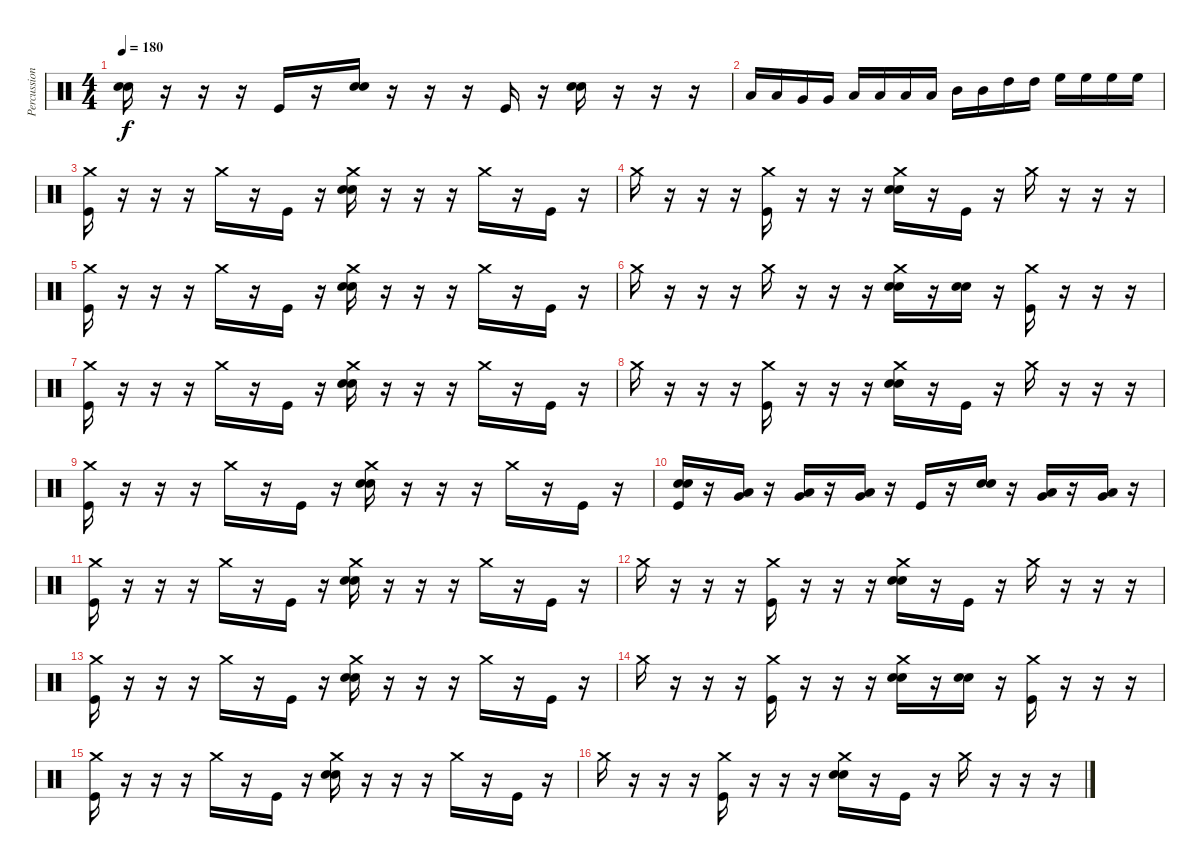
\track ("Percussion" "Percussion") {instrument percussion}
\staff {score}
\articulation defaults
\ts (4 4)
\tempo 180
\clef neutral
\ks c
("Snare (hit) 2" "Electric Snare (hit)").16{dy f} r.16 r.16 r.16 "Kick (hit)".16 r.16 ("Snare (hit) 2" "Electric Snare (hit)").16 r.16 r.16 r.16 "Kick (hit)".16 r.16 ("Snare (hit) 2" "Electric Snare (hit)").16 r.16 r.16 r.16 |
"Low Floor Tom (hit)".16 "Low Floor Tom (hit)".16 "Very Low Tom (hit)".16 "Very Low Tom (hit)".16 "Low Tom (hit)".16 "Low Tom (hit)".16 "Low Tom (hit)".16 "Low Tom (hit)".16 "Mid Tom (hit)".16 "Mid Tom (hit)".16 "High Tom (hit)".16 "High Tom (hit)".16 "High Floor Tom (hit)".16 "High Floor Tom (hit)".16 "High Floor Tom (hit)".16 "High Floor Tom (hit)".16 |
("Crash medium (hit)" "Kick (hit)").16 r.16 r.16 r.16 "Crash medium (hit)".16 r.16 "Kick (hit)".16 r.16 ("Crash medium (hit)" "Snare (hit) 2" "Electric Snare (hit)").16 r.16 r.16 r.16 "Crash medium (hit)".16 r.16 "Kick (hit)".16 r.16 |
"Crash medium (hit)".16 r.16 r.16 r.16 ("Crash medium (hit)" "Kick (hit)").16 r.16 r.16 r.16 ("Crash medium (hit)" "Snare (hit) 2" "Electric Snare (hit)").16 r.16 "Kick (hit)".16 r.16 "Crash medium (hit)".16 r.16 r.16 r.16 |
("Crash medium (hit)" "Kick (hit)").16 r.16 r.16 r.16 "Crash medium (hit)".16 r.16 "Kick (hit)".16 r.16 ("Crash medium (hit)" "Snare (hit) 2" "Electric Snare (hit)").16 r.16 r.16 r.16 "Crash medium (hit)".16 r.16 "Kick (hit)".16 r.16 |
"Crash medium (hit)".16 r.16 r.16 r.16 "Crash medium (hit)".16 r.16 r.16 r.16 ("Crash medium (hit)" "Snare (hit) 2" "Electric Snare (hit)").16 r.16 ("Snare (hit) 2" "Electric Snare (hit)").16 r.16 ("Crash medium (hit)" "Kick (hit)").16 r.16 r.16 r.16 |
("Crash medium (hit)" "Kick (hit)").16 r.16 r.16 r.16 "Crash medium (hit)".16 r.16 "Kick (hit)".16 r.16 ("Crash medium (hit)" "Snare (hit) 2" "Electric Snare (hit)").16 r.16 r.16 r.16 "Crash medium (hit)".16 r.16 "Kick (hit)".16 r.16 |
"Crash medium (hit)".16 r.16 r.16 r.16 ("Crash medium (hit)" "Kick (hit)").16 r.16 r.16 r.16 ("Crash medium (hit)" "Snare (hit) 2" "Electric Snare (hit)").16 r.16 "Kick (hit)".16 r.16 "Crash medium (hit)".16 r.16 r.16 r.16 |
("Crash medium (hit)" "Kick (hit)").16 r.16 r.16 r.16 "Crash medium (hit)".16 r.16 "Kick (hit)".16 r.16 ("Crash medium (hit)" "Snare (hit) 2" "Electric Snare (hit)").16 r.16 r.16 r.16 "Crash medium (hit)".16 r.16 "Kick (hit)".16 r.16 |
("Snare (hit) 2" "Electric Snare (hit)" "Kick (hit)").16 r.16 ("Low Tom (hit)" "Very Low Tom (hit)").16 r.16 ("Low Tom (hit)" "Very Low Tom (hit)").16 r.16 ("Low Tom (hit)" "Very Low Tom (hit)").16 r.16 "Kick (hit)".16 r.16 ("Snare (hit) 2" "Electric Snare (hit)").16 r.16 ("Low Tom (hit)" "Very Low Tom (hit)").16 r.16 ("Low Tom (hit)" "Very Low Tom (hit)").16 r.16 |
("Crash medium (hit)" "Kick (hit)").16 r.16 r.16 r.16 "Crash medium (hit)".16 r.16 "Kick (hit)".16 r.16 ("Crash medium (hit)" "Snare (hit) 2" "Electric Snare (hit)").16 r.16 r.16 r.16 "Crash medium (hit)".16 r.16 "Kick (hit)".16 r.16 |
"Crash medium (hit)".16 r.16 r.16 r.16 ("Crash medium (hit)" "Kick (hit)").16 r.16 r.16 r.16 ("Crash medium (hit)" "Snare (hit) 2" "Electric Snare (hit)").16 r.16 "Kick (hit)".16 r.16 "Crash medium (hit)".16 r.16 r.16 r.16 |
("Crash medium (hit)" "Kick (hit)").16 r.16 r.16 r.16 "Crash medium (hit)".16 r.16 "Kick (hit)".16 r.16 ("Crash medium (hit)" "Snare (hit) 2" "Electric Snare (hit)").16 r.16 r.16 r.16 "Crash medium (hit)".16 r.16 "Kick (hit)".16 r.16 |
"Crash medium (hit)".16 r.16 r.16 r.16 ("Crash medium (hit)" "Kick (hit)").16 r.16 r.16 r.16 ("Crash medium (hit)" "Snare (hit) 2" "Electric Snare (hit)").16 r.16 ("Snare (hit) 2" "Electric Snare (hit)").16 r.16 ("Crash medium (hit)" "Kick (hit)").16 r.16 r.16 r.16 |
("Crash medium (hit)" "Kick (hit)").16 r.16 r.16 r.16 "Crash medium (hit)".16 r.16 "Kick (hit)".16 r.16 ("Crash medium (hit)" "Snare (hit) 2" "Electric Snare (hit)").16 r.16 r.16 r.16 "Crash medium (hit)".16 r.16 "Kick (hit)".16 r.16 |
"Crash medium (hit)".16 r.16 r.16 r.16 ("Crash medium (hit)" "Kick (hit)").16 r.16 r.16 r.16 ("Crash medium (hit)" "Snare (hit) 2" "Electric Snare (hit)").16 r.16 "Kick (hit)".16 r.16 "Crash medium (hit)".16 r.16 r.16 r.16
